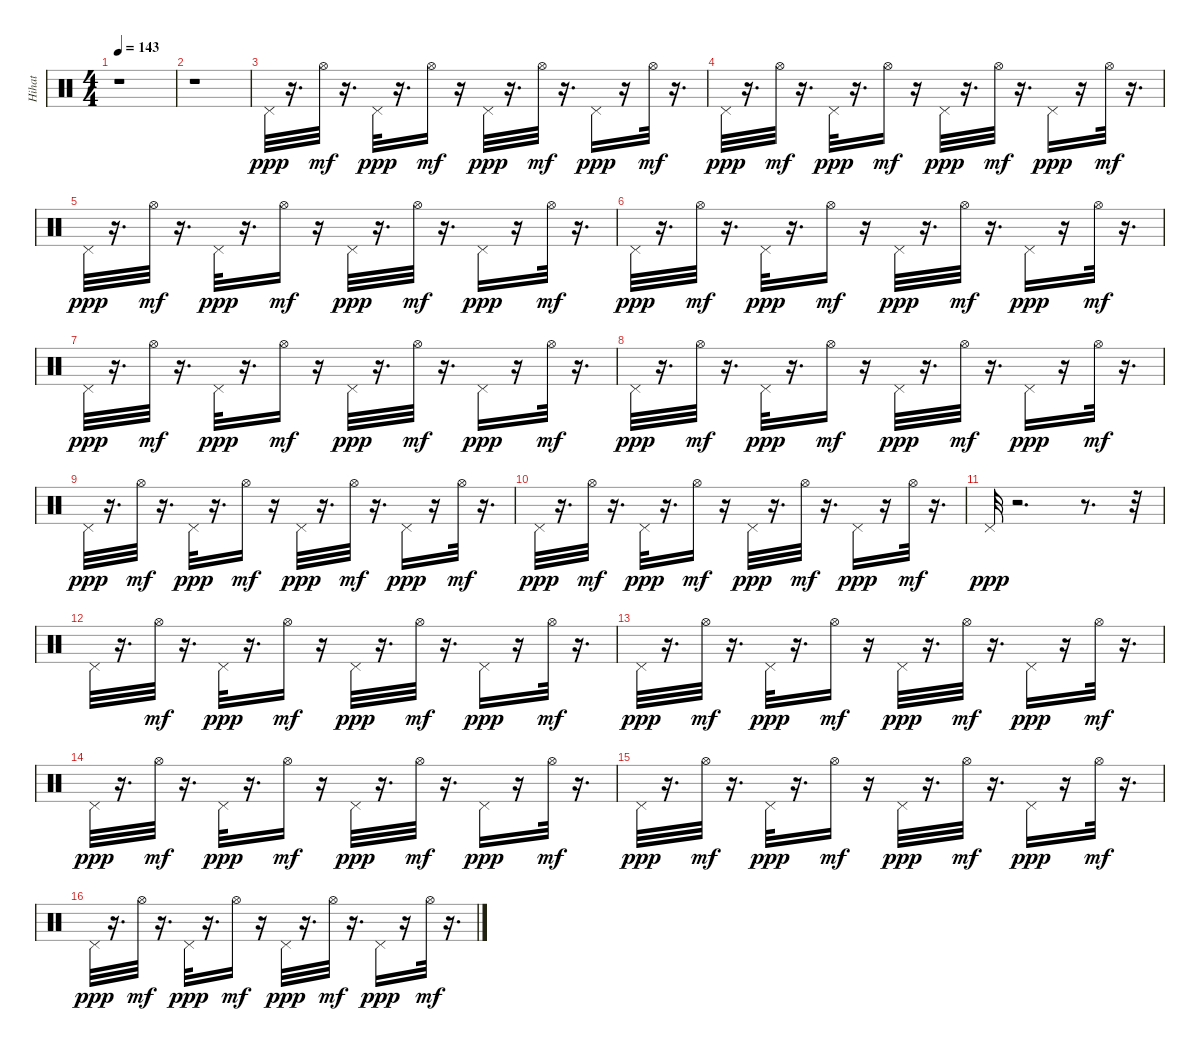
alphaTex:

\track ("Hihat    " "Hihat    ") {instrument percussion}
\staff {score}
\articulation defaults
\ts (4 4)
\tempo 143
\clef neutral
\ks c
r.1{dy ppp} |
r.1 |
"Pedal Hi-Hat (hit)".32 r.16{d} "Hi-Hat (open)".32{dy mf} r.16{d} "Pedal Hi-Hat (hit)".32{dy ppp} r.16{d} "Hi-Hat (open)".16{dy mf} r.16 "Pedal Hi-Hat (hit)".32{dy ppp} r.16{d} "Hi-Hat (open)".32{dy mf} r.16{d} "Pedal Hi-Hat (hit)".16{dy ppp} r.16 "Hi-Hat (open)".32{dy mf} r.16{d} |
"Pedal Hi-Hat (hit)".32{dy ppp} r.16{d} "Hi-Hat (open)".32{dy mf} r.16{d} "Pedal Hi-Hat (hit)".32{dy ppp} r.16{d} "Hi-Hat (open)".16{dy mf} r.16 "Pedal Hi-Hat (hit)".32{dy ppp} r.16{d} "Hi-Hat (open)".32{dy mf} r.16{d} "Pedal Hi-Hat (hit)".16{dy ppp} r.16 "Hi-Hat (open)".32{dy mf} r.16{d} |
"Pedal Hi-Hat (hit)".32{dy ppp} r.16{d} "Hi-Hat (open)".32{dy mf} r.16{d} "Pedal Hi-Hat (hit)".32{dy ppp} r.16{d} "Hi-Hat (open)".16{dy mf} r.16 "Pedal Hi-Hat (hit)".32{dy ppp} r.16{d} "Hi-Hat (open)".32{dy mf} r.16{d} "Pedal Hi-Hat (hit)".16{dy ppp} r.16 "Hi-Hat (open)".32{dy mf} r.16{d} |
"Pedal Hi-Hat (hit)".32{dy ppp} r.16{d} "Hi-Hat (open)".32{dy mf} r.16{d} "Pedal Hi-Hat (hit)".32{dy ppp} r.16{d} "Hi-Hat (open)".16{dy mf} r.16 "Pedal Hi-Hat (hit)".32{dy ppp} r.16{d} "Hi-Hat (open)".32{dy mf} r.16{d} "Pedal Hi-Hat (hit)".16{dy ppp} r.16 "Hi-Hat (open)".32{dy mf} r.16{d} |
"Pedal Hi-Hat (hit)".32{dy ppp} r.16{d} "Hi-Hat (open)".32{dy mf} r.16{d} "Pedal Hi-Hat (hit)".32{dy ppp} r.16{d} "Hi-Hat (open)".16{dy mf} r.16 "Pedal Hi-Hat (hit)".32{dy ppp} r.16{d} "Hi-Hat (open)".32{dy mf} r.16{d} "Pedal Hi-Hat (hit)".16{dy ppp} r.16 "Hi-Hat (open)".32{dy mf} r.16{d} |
"Pedal Hi-Hat (hit)".32{dy ppp} r.16{d} "Hi-Hat (open)".32{dy mf} r.16{d} "Pedal Hi-Hat (hit)".32{dy ppp} r.16{d} "Hi-Hat (open)".16{dy mf} r.16 "Pedal Hi-Hat (hit)".32{dy ppp} r.16{d} "Hi-Hat (open)".32{dy mf} r.16{d} "Pedal Hi-Hat (hit)".16{dy ppp} r.16 "Hi-Hat (open)".32{dy mf} r.16{d} |
"Pedal Hi-Hat (hit)".32{dy ppp} r.16{d} "Hi-Hat (open)".32{dy mf} r.16{d} "Pedal Hi-Hat (hit)".32{dy ppp} r.16{d} "Hi-Hat (open)".16{dy mf} r.16 "Pedal Hi-Hat (hit)".32{dy ppp} r.16{d} "Hi-Hat (open)".32{dy mf} r.16{d} "Pedal Hi-Hat (hit)".16{dy ppp} r.16 "Hi-Hat (open)".32{dy mf} r.16{d} |
"Pedal Hi-Hat (hit)".32{dy ppp} r.16{d} "Hi-Hat (open)".32{dy mf} r.16{d} "Pedal Hi-Hat (hit)".32{dy ppp} r.16{d} "Hi-Hat (open)".16{dy mf} r.16 "Pedal Hi-Hat (hit)".32{dy ppp} r.16{d} "Hi-Hat (open)".32{dy mf} r.16{d} "Pedal Hi-Hat (hit)".16{dy ppp} r.16 "Hi-Hat (open)".32{dy mf} r.16{d} |
"Pedal Hi-Hat (hit)".32{dy ppp} r.2{d} r.8{d} r.32 |
"Pedal Hi-Hat (hit)".32 r.16{d} "Hi-Hat (open)".32{dy mf} r.16{d} "Pedal Hi-Hat (hit)".32{dy ppp} r.16{d} "Hi-Hat (open)".16{dy mf} r.16 "Pedal Hi-Hat (hit)".32{dy ppp} r.16{d} "Hi-Hat (open)".32{dy mf} r.16{d} "Pedal Hi-Hat (hit)".16{dy ppp} r.16 "Hi-Hat (open)".32{dy mf} r.16{d} |
"Pedal Hi-Hat (hit)".32{dy ppp} r.16{d} "Hi-Hat (open)".32{dy mf} r.16{d} "Pedal Hi-Hat (hit)".32{dy ppp} r.16{d} "Hi-Hat (open)".16{dy mf} r.16 "Pedal Hi-Hat (hit)".32{dy ppp} r.16{d} "Hi-Hat (open)".32{dy mf} r.16{d} "Pedal Hi-Hat (hit)".16{dy ppp} r.16 "Hi-Hat (open)".32{dy mf} r.16{d} |
"Pedal Hi-Hat (hit)".32{dy ppp} r.16{d} "Hi-Hat (open)".32{dy mf} r.16{d} "Pedal Hi-Hat (hit)".32{dy ppp} r.16{d} "Hi-Hat (open)".16{dy mf} r.16 "Pedal Hi-Hat (hit)".32{dy ppp} r.16{d} "Hi-Hat (open)".32{dy mf} r.16{d} "Pedal Hi-Hat (hit)".16{dy ppp} r.16 "Hi-Hat (open)".32{dy mf} r.16{d} |
"Pedal Hi-Hat (hit)".32{dy ppp} r.16{d} "Hi-Hat (open)".32{dy mf} r.16{d} "Pedal Hi-Hat (hit)".32{dy ppp} r.16{d} "Hi-Hat (open)".16{dy mf} r.16 "Pedal Hi-Hat (hit)".32{dy ppp} r.16{d} "Hi-Hat (open)".32{dy mf} r.16{d} "Pedal Hi-Hat (hit)".16{dy ppp} r.16 "Hi-Hat (open)".32{dy mf} r.16{d} |
"Pedal Hi-Hat (hit)".32{dy ppp} r.16{d} "Hi-Hat (open)".32{dy mf} r.16{d} "Pedal Hi-Hat (hit)".32{dy ppp} r.16{d} "Hi-Hat (open)".16{dy mf} r.16 "Pedal Hi-Hat (hit)".32{dy ppp} r.16{d} "Hi-Hat (open)".32{dy mf} r.16{d} "Pedal Hi-Hat (hit)".16{dy ppp} r.16 "Hi-Hat (open)".32{dy mf} r.16{d}
